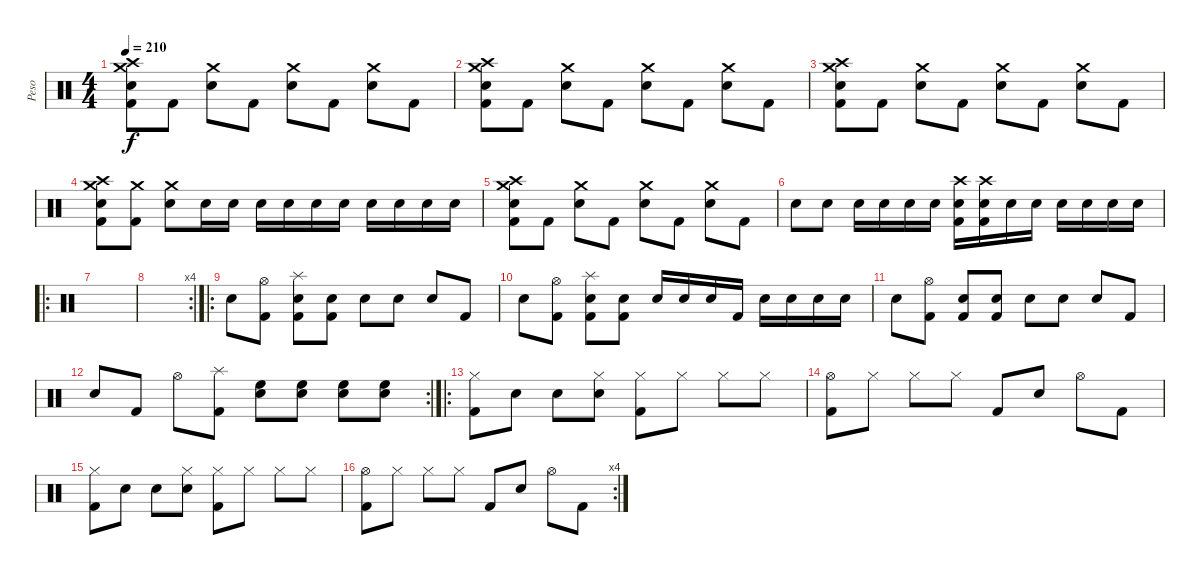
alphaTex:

\track ("Peso" "Peso") {instrument percussion}
\staff {score}
\articulation defaults
\ts (4 4)
\tempo 210
\clef neutral
\ks c
("Crash high (hit)" "Crash medium (hit)" "Snare (hit) 2" "Kick (hit) 2").8{dy f} "Kick (hit) 2".8 ("Crash medium (hit)" "Snare (hit) 2").8 "Kick (hit) 2".8 ("Crash medium (hit)" "Snare (hit) 2").8 "Kick (hit) 2".8 ("Crash medium (hit)" "Snare (hit) 2").8 "Kick (hit) 2".8 |
("Crash high (hit)" "Crash medium (hit)" "Snare (hit) 2" "Kick (hit) 2").8 "Kick (hit) 2".8 ("Crash medium (hit)" "Snare (hit) 2").8 "Kick (hit) 2".8 ("Crash medium (hit)" "Snare (hit) 2").8 "Kick (hit) 2".8 ("Crash medium (hit)" "Snare (hit) 2").8 "Kick (hit) 2".8 |
("Crash high (hit)" "Crash medium (hit)" "Snare (hit) 2" "Kick (hit) 2").8 "Kick (hit) 2".8 ("Crash medium (hit)" "Snare (hit) 2").8 "Kick (hit) 2".8 ("Crash medium (hit)" "Snare (hit) 2").8 "Kick (hit) 2".8 ("Crash medium (hit)" "Snare (hit) 2").8 "Kick (hit) 2".8 |
("Crash high (hit)" "Crash medium (hit)" "Snare (hit) 2" "Kick (hit) 2").8 ("Crash medium (hit)" "Kick (hit) 2").8 ("Crash medium (hit)" "Snare (hit) 2").8 "Snare (hit) 2".16 "Snare (hit) 2".16 "Snare (hit) 2".16 "Snare (hit) 2".16 "Snare (hit) 2".16 "Snare (hit) 2".16 "Snare (hit) 2".16 "Snare (hit) 2".16 "Snare (hit) 2".16 "Snare (hit) 2".16 |
("Crash high (hit)" "Crash medium (hit)" "Snare (hit) 2" "Kick (hit) 2").8 "Kick (hit) 2".8 ("Crash medium (hit)" "Snare (hit) 2").8 "Kick (hit) 2".8 ("Crash medium (hit)" "Snare (hit) 2").8 "Kick (hit) 2".8 ("Crash medium (hit)" "Snare (hit) 2").8 "Kick (hit) 2".8 |
"Snare (hit) 2".8 "Snare (hit) 2".8 "Snare (hit) 2".16 "Snare (hit) 2".16 "Snare (hit) 2".16 "Snare (hit) 2".16 ("Crash high (hit)" "Snare (hit)"{x} "Kick (hit) 2").16 ("Crash high (hit)" "Snare (hit)"{x} "Kick (hit) 2").16 "Snare (hit)"{x}.16 "Snare (hit)"{x}.16 "Snare (hit)"{x}.16 "Snare (hit)"{x}.16 "Snare (hit)"{x}.16 "Snare (hit)"{x}.16 |
\ro
|
\rc 4
|
\ro "Snare (hit) 2".8
("Hi-Hat (open)" "Kick (hit) 2").8 ("Splash (hit)" "Snare (hit)"{x} "Kick (hit) 2").8 ("Snare (hit)"{x} "Kick (hit) 2").8 "Snare (hit) 2".8 "Snare (hit) 2"{x}.8 "Snare (hit) 2".8 "Kick (hit) 2".8 |
"Snare (hit) 2".8 ("Hi-Hat (open)" "Kick (hit) 2").8 ("Splash (hit)" "Snare (hit)"{x} "Kick (hit) 2").8 ("Snare (hit)"{x} "Kick (hit) 2").8 "Snare (hit) 2".16 "Snare (hit) 2".16 "Snare (hit) 2".16 "Kick (hit) 2".16 "Snare (hit) 2".16 "Snare (hit) 2".16 "Snare (hit) 2".16 "Snare (hit) 2".16 |
"Snare (hit) 2".8 ("Hi-Hat (open)" "Kick (hit) 2").8 ("Snare (hit)"{x} "Kick (hit) 2").8 ("Snare (hit)"{x} "Kick (hit) 2").8 "Snare (hit) 2".8 "Snare (hit) 2"{x}.8 "Snare (hit) 2".8 "Kick (hit) 2".8 |
\rc 2 "Snare (hit) 2".8 "Kick (hit) 2".8 "Hi-Hat (open)".8
("Splash (hit)" "Kick (hit) 2").8 ("Snare (hit) 2" "High Floor Tom (hit)").8 ("Snare (hit) 2" "High Floor Tom (hit)").8 ("Snare (hit) 2" "High Floor Tom (hit)").8 ("Snare (hit) 2" "High Floor Tom (hit)").8 |
\ro
("Hi-Hat (closed)" "Kick (hit) 2").8 "Snare (hit)"{x}.8 "Snare (hit)"{x}.8 ("Hi-Hat (closed)" "Snare (hit) 2").8 ("Hi-Hat (closed)" "Kick (hit) 2").8 "Hi-Hat (closed)"{x}.8 "Hi-Hat (closed)"{x}.8 "Hi-Hat (closed)".8 |
("Hi-Hat (open)" "Kick (hit) 2").8 "Hi-Hat (closed)"{x}.8 "Hi-Hat (closed)".8 "Hi-Hat (closed)"{x}.8 "Kick (hit) 2".8 "Snare (hit) 2".8 "Hi-Hat (open)".8 "Kick (hit) 2".8 |
("Hi-Hat (closed)" "Kick (hit) 2").8 "Snare (hit)"{x}.8 "Snare (hit)"{x}.8 ("Hi-Hat (closed)" "Snare (hit) 2").8 ("Hi-Hat (closed)" "Kick (hit) 2").8 "Hi-Hat (closed)"{x}.8 "Hi-Hat (closed)"{x}.8 "Hi-Hat (closed)".8 |
\rc 4
("Hi-Hat (open)" "Kick (hit) 2").8 "Hi-Hat (closed)"{x}.8 "Hi-Hat (closed)".8 "Hi-Hat (closed)"{x}.8 "Kick (hit) 2".8 "Snare (hit) 2".8 "Hi-Hat (open)".8 "Kick (hit) 2".8
